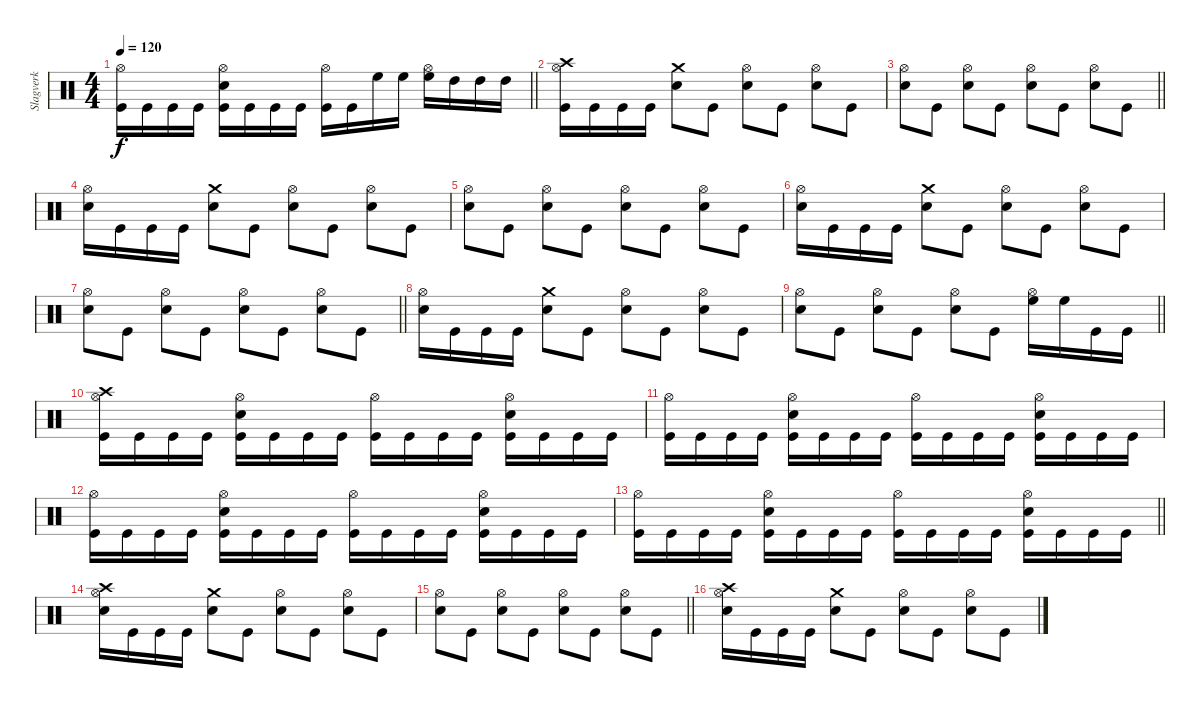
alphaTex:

\track ("Slagverk" "Slagverk") {instrument percussion}
\staff {score}
\articulation defaults
\ts (4 4)
\tempo 120
\clef neutral
\barLineRight lightlight
\ks c
("Hi-Hat (open)" "Kick (hit)").16{dy f} "Kick (hit)".16 "Kick (hit)".16 "Kick (hit)".16 ("Hi-Hat (open)" "Electric Snare (hit)" "Kick (hit)").16 "Kick (hit)".16 "Kick (hit)".16 "Kick (hit)".16 ("Hi-Hat (open)" "Kick (hit)").16 "Kick (hit)".16 "High Floor Tom (hit)".16 "High Floor Tom (hit)".16 ("Hi-Hat (open)" "High Floor Tom (hit)").16 "High Tom (hit)".16 "High Tom (hit)".16 "High Tom (hit)".16 |
("Crash high (hit)" "Hi-Hat (open)" "Kick (hit)").16 "Kick (hit)".16 "Kick (hit)".16 "Kick (hit)".16 ("Crash medium (hit)" "Electric Snare (hit)").8 "Kick (hit)".8 ("Hi-Hat (open)" "Electric Snare (hit)").8 "Kick (hit)".8 ("Hi-Hat (open)" "Electric Snare (hit)").8 "Kick (hit)".8 |
\barLineRight lightlight
("Hi-Hat (open)" "Electric Snare (hit)").8 "Kick (hit)".8 ("Hi-Hat (open)" "Electric Snare (hit)").8 "Kick (hit)".8 ("Hi-Hat (open)" "Electric Snare (hit)").8 "Kick (hit)".8 ("Hi-Hat (open)" "Electric Snare (hit)").8 "Kick (hit)".8 |
("Hi-Hat (open)" "Electric Snare (hit)").16 "Kick (hit)".16 "Kick (hit)".16 "Kick (hit)".16 ("Crash medium (hit)" "Electric Snare (hit)").8 "Kick (hit)".8 ("Hi-Hat (open)" "Electric Snare (hit)").8 "Kick (hit)".8 ("Hi-Hat (open)" "Electric Snare (hit)").8 "Kick (hit)".8 |
("Hi-Hat (open)" "Electric Snare (hit)").8 "Kick (hit)".8 ("Hi-Hat (open)" "Electric Snare (hit)").8 "Kick (hit)".8 ("Hi-Hat (open)" "Electric Snare (hit)").8 "Kick (hit)".8 ("Hi-Hat (open)" "Electric Snare (hit)").8 "Kick (hit)".8 |
("Hi-Hat (open)" "Electric Snare (hit)").16 "Kick (hit)".16 "Kick (hit)".16 "Kick (hit)".16 ("Crash medium (hit)" "Electric Snare (hit)").8 "Kick (hit)".8 ("Hi-Hat (open)" "Electric Snare (hit)").8 "Kick (hit)".8 ("Hi-Hat (open)" "Electric Snare (hit)").8 "Kick (hit)".8 |
\barLineRight lightlight
("Hi-Hat (open)" "Electric Snare (hit)").8 "Kick (hit)".8 ("Hi-Hat (open)" "Electric Snare (hit)").8 "Kick (hit)".8 ("Hi-Hat (open)" "Electric Snare (hit)").8 "Kick (hit)".8 ("Hi-Hat (open)" "Electric Snare (hit)").8 "Kick (hit)".8 |
("Hi-Hat (open)" "Electric Snare (hit)").16 "Kick (hit)".16 "Kick (hit)".16 "Kick (hit)".16 ("Crash medium (hit)" "Electric Snare (hit)").8 "Kick (hit)".8 ("Hi-Hat (open)" "Electric Snare (hit)").8 "Kick (hit)".8 ("Hi-Hat (open)" "Electric Snare (hit)").8 "Kick (hit)".8 |
\barLineRight lightlight
("Hi-Hat (open)" "Electric Snare (hit)").8 "Kick (hit)".8 ("Hi-Hat (open)" "Electric Snare (hit)").8 "Kick (hit)".8 ("Hi-Hat (open)" "Electric Snare (hit)").8 "Kick (hit)".8 ("Hi-Hat (open)" "High Floor Tom (hit)").16 "High Floor Tom (hit)".16 "Kick (hit)".16 "Kick (hit)".16 |
("Crash high (hit)" "Hi-Hat (open)" "Kick (hit)").16 "Kick (hit)".16 "Kick (hit)".16 "Kick (hit)".16 ("Hi-Hat (open)" "Electric Snare (hit)" "Kick (hit)").16 "Kick (hit)".16 "Kick (hit)".16 "Kick (hit)".16 ("Hi-Hat (open)" "Kick (hit)").16 "Kick (hit)".16 "Kick (hit)".16 "Kick (hit)".16 ("Hi-Hat (open)" "Electric Snare (hit)" "Kick (hit)").16 "Kick (hit)".16 "Kick (hit)".16 "Kick (hit)".16 |
("Hi-Hat (open)" "Kick (hit)").16 "Kick (hit)".16 "Kick (hit)".16 "Kick (hit)".16 ("Hi-Hat (open)" "Electric Snare (hit)" "Kick (hit)").16 "Kick (hit)".16 "Kick (hit)".16 "Kick (hit)".16 ("Hi-Hat (open)" "Kick (hit)").16 "Kick (hit)".16 "Kick (hit)".16 "Kick (hit)".16 ("Hi-Hat (open)" "Electric Snare (hit)" "Kick (hit)").16 "Kick (hit)".16 "Kick (hit)".16 "Kick (hit)".16 |
("Hi-Hat (open)" "Kick (hit)").16 "Kick (hit)".16 "Kick (hit)".16 "Kick (hit)".16 ("Hi-Hat (open)" "Electric Snare (hit)" "Kick (hit)").16 "Kick (hit)".16 "Kick (hit)".16 "Kick (hit)".16 ("Hi-Hat (open)" "Kick (hit)").16 "Kick (hit)".16 "Kick (hit)".16 "Kick (hit)".16 ("Hi-Hat (open)" "Electric Snare (hit)" "Kick (hit)").16 "Kick (hit)".16 "Kick (hit)".16 "Kick (hit)".16 |
\barLineRight lightlight
("Hi-Hat (open)" "Kick (hit)").16 "Kick (hit)".16 "Kick (hit)".16 "Kick (hit)".16 ("Hi-Hat (open)" "Electric Snare (hit)" "Kick (hit)").16 "Kick (hit)".16 "Kick (hit)".16 "Kick (hit)".16 ("Hi-Hat (open)" "Kick (hit)").16 "Kick (hit)".16 "Kick (hit)".16 "Kick (hit)".16 ("Hi-Hat (open)" "Electric Snare (hit)" "Kick (hit)").16 "Kick (hit)".16 "Kick (hit)".16 "Kick (hit)".16 |
("Crash high (hit)" "Hi-Hat (open)" "Electric Snare (hit)").16 "Kick (hit)".16 "Kick (hit)".16 "Kick (hit)".16 ("Crash medium (hit)" "Electric Snare (hit)").8 "Kick (hit)".8 ("Hi-Hat (open)" "Electric Snare (hit)").8 "Kick (hit)".8 ("Hi-Hat (open)" "Electric Snare (hit)").8 "Kick (hit)".8 |
\barLineRight lightlight
("Hi-Hat (open)" "Electric Snare (hit)").8 "Kick (hit)".8 ("Hi-Hat (open)" "Electric Snare (hit)").8 "Kick (hit)".8 ("Hi-Hat (open)" "Electric Snare (hit)").8 "Kick (hit)".8 ("Hi-Hat (open)" "Electric Snare (hit)").8 "Kick (hit)".8 |
("Crash high (hit)" "Hi-Hat (open)" "Electric Snare (hit)").16 "Kick (hit)".16 "Kick (hit)".16 "Kick (hit)".16 ("Crash medium (hit)" "Electric Snare (hit)").8 "Kick (hit)".8 ("Hi-Hat (open)" "Electric Snare (hit)").8 "Kick (hit)".8 ("Hi-Hat (open)" "Electric Snare (hit)").8 "Kick (hit)".8
